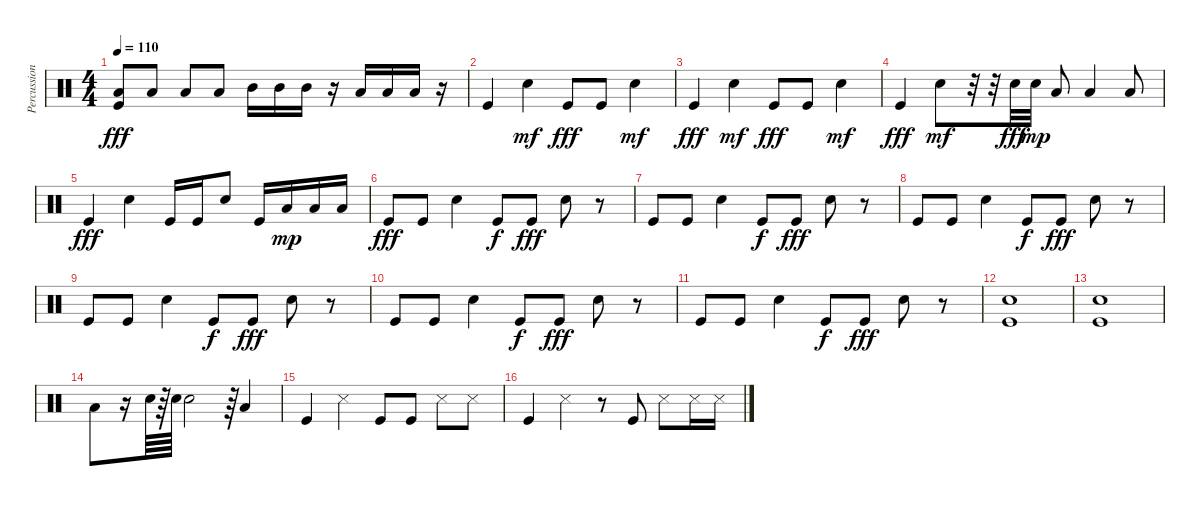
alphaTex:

\track ("Percussion" "Percussion") {instrument percussion}
\staff {score}
\articulation defaults
\ts (4 4)
\tempo 110
\clef neutral
\ks c
("Low Tom (hit)" "Kick (hit)").8{dy fff} "Low Floor Tom (hit)".8 "Low Tom (hit)".8 "Low Floor Tom (hit)".8 "Mid Tom (hit)".16 "Mid Tom (hit)".16 "Mid Tom (hit)".16 r.16 "Low Tom (hit)".16 "Low Tom (hit)".16 "Low Tom (hit)".16 r.16 |
"Kick (hit)".4 "Snare (hit) 2".4{dy mf} "Kick (hit)".8{dy fff} "Kick (hit)".8 "Snare (hit) 2".4{dy mf} |
"Kick (hit)".4{dy fff} "Snare (hit) 2".4{dy mf} "Kick (hit)".8{dy fff} "Kick (hit)".8 "Snare (hit) 2".4{dy mf} |
"Kick (hit)".4{dy fff} "Snare (hit) 2".8{dy mf} r.32 r.32 "Snare (hit) 2".32{dy fff} "Snare (hit) 2".32{dy mp} "Low Tom (hit)".8 "Low Floor Tom (hit)".4 "Low Floor Tom (hit)".8 |
"Kick (hit)".4{dy fff} "Snare (hit) 2".4 "Kick (hit)".16 "Kick (hit)".16 "Snare (hit) 2".8 "Kick (hit)".16 "Low Tom (hit)".16{dy mp} "Low Tom (hit)".16 "Low Tom (hit)".16 |
"Kick (hit)".8{dy fff} "Kick (hit)".8 "Snare (hit) 2".4 "Kick (hit)".8{dy f} "Kick (hit)".8{dy fff} "Snare (hit) 2".8 r.8 |
"Kick (hit)".8 "Kick (hit)".8 "Snare (hit) 2".4 "Kick (hit)".8{dy f} "Kick (hit)".8{dy fff} "Snare (hit) 2".8 r.8 |
"Kick (hit)".8 "Kick (hit)".8 "Snare (hit) 2".4 "Kick (hit)".8{dy f} "Kick (hit)".8{dy fff} "Snare (hit) 2".8 r.8 |
"Kick (hit)".8 "Kick (hit)".8 "Snare (hit) 2".4 "Kick (hit)".8{dy f} "Kick (hit)".8{dy fff} "Snare (hit) 2".8 r.8 |
"Kick (hit)".8 "Kick (hit)".8 "Snare (hit) 2".4 "Kick (hit)".8{dy f} "Kick (hit)".8{dy fff} "Snare (hit) 2".8 r.8 |
"Kick (hit)".8 "Kick (hit)".8 "Snare (hit) 2".4 "Kick (hit)".8{dy f} "Kick (hit)".8{dy fff} "Snare (hit) 2".8 r.8 |
("Snare (hit) 2" "Kick (hit)").1 |
("Snare (hit) 2" "Kick (hit)").1 |
"Low Tom (hit)".8 r.16 "Snare (hit) 2".64 r.64 "Snare (hit) 2".64 "Snare (hit) 2".2 r.64 "Low Floor Tom (hit)".4 |
"Kick (hit)".4 "Snare (side stick) 3".4 "Kick (hit)".8 "Kick (hit)".8 "Snare (side stick) 3".8 "Snare (side stick) 3".8 |
"Kick (hit)".4 "Snare (side stick) 3".4 r.8 "Kick (hit)".8 "Snare (side stick) 3".8 "Snare (side stick) 3".16 "Snare (side stick) 3".16
